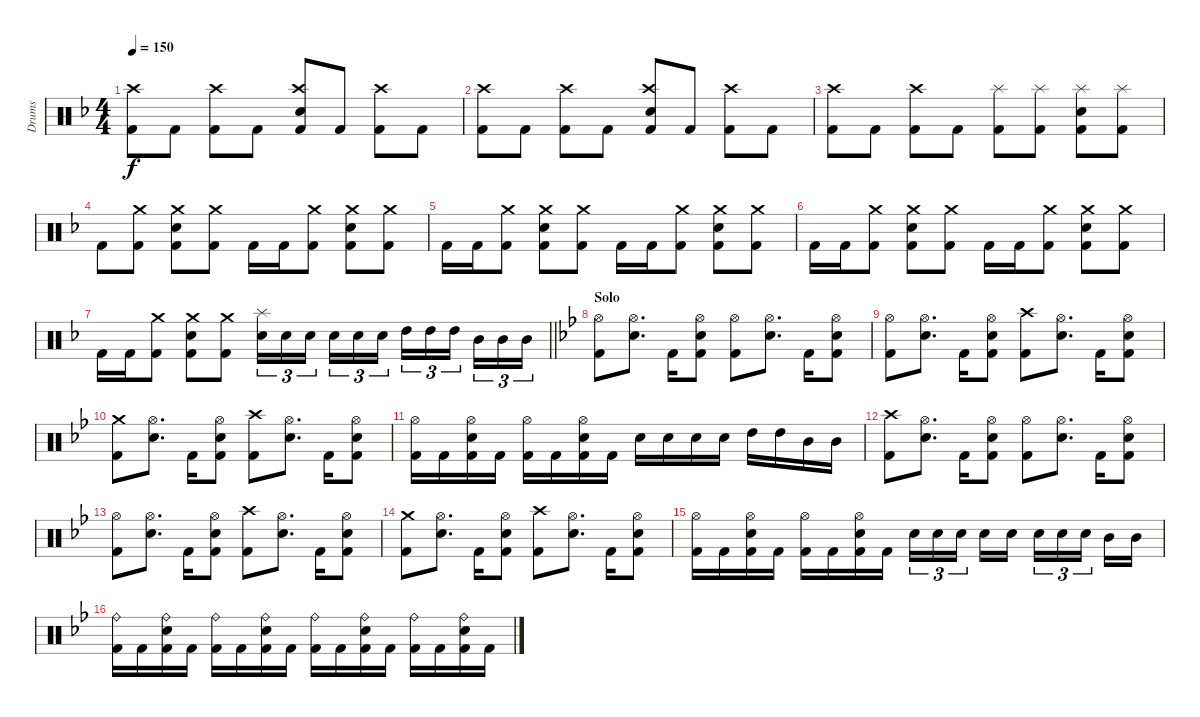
\track ("Drums" "Drums") {instrument percussion}
\staff {score}
\articulation defaults
\ts (4 4)
\tempo 150
\clef neutral
\ks dminor
("Kick (hit) 2" "Crash high (hit)").8{dy f} "Kick (hit) 2".8 ("Kick (hit) 2" "Crash high (hit)").8 "Kick (hit) 2".8 ("Kick (hit) 2" "Snare (hit) 2" "Crash high (hit)").8 "Kick (hit) 2".8 ("Kick (hit) 2" "Crash high (hit)").8 "Kick (hit) 2".8 |
("Kick (hit) 2" "Crash high (hit)").8 "Kick (hit) 2".8 ("Kick (hit) 2" "Crash high (hit)").8 "Kick (hit) 2".8 ("Kick (hit) 2" "Snare (hit) 2" "Crash high (hit)").8 "Kick (hit) 2".8 ("Kick (hit) 2" "Crash high (hit)").8 "Kick (hit) 2".8 |
("Kick (hit) 2" "Crash high (hit)").8 "Kick (hit) 2".8 ("Kick (hit) 2" "Crash high (hit)").8 "Kick (hit) 2".8 ("Kick (hit) 2" "Splash (hit)").8 ("Kick (hit) 2" "Splash (hit)").8 ("Kick (hit) 2" "Snare (hit) 2" "Splash (hit)").8 ("Kick (hit) 2" "Splash (hit)").8 |
"Kick (hit) 2".8 ("Kick (hit) 2" "Crash medium (hit)").8 ("Kick (hit) 2" "Snare (hit) 2" "Crash medium (hit)").8 ("Kick (hit) 2" "Crash medium (hit)").8 "Kick (hit) 2".16 "Kick (hit) 2".16 ("Kick (hit) 2" "Crash medium (hit)").8 ("Kick (hit) 2" "Snare (hit) 2" "Crash medium (hit)").8 ("Kick (hit) 2" "Crash medium (hit)").8 |
"Kick (hit) 2".16 "Kick (hit) 2".16 ("Kick (hit) 2" "Crash medium (hit)").8 ("Kick (hit) 2" "Snare (hit) 2" "Crash medium (hit)").8 ("Kick (hit) 2" "Crash medium (hit)").8 "Kick (hit) 2".16 "Kick (hit) 2".16 ("Kick (hit) 2" "Crash medium (hit)").8 ("Kick (hit) 2" "Snare (hit) 2" "Crash medium (hit)").8 ("Kick (hit) 2" "Crash medium (hit)").8 |
"Kick (hit) 2".16 "Kick (hit) 2".16 ("Kick (hit) 2" "Crash medium (hit)").8 ("Kick (hit) 2" "Snare (hit) 2" "Crash medium (hit)").8 ("Kick (hit) 2" "Crash medium (hit)").8 "Kick (hit) 2".16 "Kick (hit) 2".16 ("Kick (hit) 2" "Crash medium (hit)").8 ("Kick (hit) 2" "Snare (hit) 2" "Crash medium (hit)").8 ("Kick (hit) 2" "Crash medium (hit)").8 |
\barLineRight lightlight "Kick (hit) 2".16 "Kick (hit) 2".16
("Kick (hit) 2" "Crash medium (hit)").8 ("Kick (hit) 2" "Snare (hit) 2" "Crash medium (hit)").8 ("Kick (hit) 2" "Crash medium (hit)").8 ("Snare (hit) 2" "Splash (hit)").16{tu (3 2)} "Snare (hit) 2".16{tu (3 2)} "Snare (hit) 2".16{tu (3 2) beam splitsecondary} "Snare (hit) 2".16{tu (3 2)} "Snare (hit) 2".16{tu (3 2)} "Snare (hit) 2".16{tu (3 2)} "High Tom (hit)".16{tu (3 2)} "High Tom (hit)".16{tu (3 2)} "High Tom (hit)".16{tu (3 2) beam splitsecondary} "Mid Tom (hit)".16{tu (3 2)} "Mid Tom (hit)".16{tu (3 2)} "Mid Tom (hit)".16{tu (3 2)} |
\section ("" "Solo")
\ks gminor
("Kick (hit) 2" "Hi-Hat (open)").8 ("Snare (hit) 2" "Hi-Hat (open)").8{d} "Kick (hit) 2".16 ("Kick (hit) 2" "Snare (hit) 2" "Hi-Hat (open)").8 ("Kick (hit) 2" "Hi-Hat (open)").8 ("Snare (hit) 2" "Hi-Hat (open)").8{d} "Kick (hit) 2".16 ("Kick (hit) 2" "Snare (hit) 2" "Hi-Hat (open)").8 |
("Kick (hit) 2" "Hi-Hat (open)").8 ("Snare (hit) 2" "Hi-Hat (open)").8{d} "Kick (hit) 2".16 ("Kick (hit) 2" "Snare (hit) 2" "Hi-Hat (open)").8 ("Kick (hit) 2" "Crash high (hit)").8 ("Snare (hit) 2" "Hi-Hat (open)").8{d} "Kick (hit) 2".16 ("Kick (hit) 2" "Snare (hit) 2" "Hi-Hat (open)").8 |
("Kick (hit) 2" "Crash medium (hit)").8 ("Snare (hit) 2" "Hi-Hat (open)").8{d} "Kick (hit) 2".16 ("Kick (hit) 2" "Snare (hit) 2" "Hi-Hat (open)").8 ("Kick (hit) 2" "Crash high (hit)").8 ("Snare (hit) 2" "Hi-Hat (open)").8{d} "Kick (hit) 2".16 ("Kick (hit) 2" "Snare (hit) 2" "Hi-Hat (open)").8 |
("Kick (hit) 2" "Hi-Hat (open)").16 "Kick (hit) 2".16 ("Kick (hit) 2" "Snare (hit) 2" "Hi-Hat (open)").16 "Kick (hit) 2".16 ("Kick (hit) 2" "Hi-Hat (open)").16 "Kick (hit) 2".16 ("Kick (hit) 2" "Snare (hit) 2" "Hi-Hat (open)").16 "Kick (hit) 2".16 "Snare (hit) 2".16 "Snare (hit) 2".16 "Snare (hit) 2".16 "Snare (hit) 2".16 "High Tom (hit)".16 "High Tom (hit)".16 "Mid Tom (hit)".16 "Mid Tom (hit)".16 |
("Kick (hit) 2" "Crash high (hit)").8 ("Snare (hit) 2" "Hi-Hat (open)").8{d} "Kick (hit) 2".16 ("Kick (hit) 2" "Snare (hit) 2" "Hi-Hat (open)").8 ("Kick (hit) 2" "Hi-Hat (open)").8 ("Snare (hit) 2" "Hi-Hat (open)").8{d} "Kick (hit) 2".16 ("Kick (hit) 2" "Snare (hit) 2" "Hi-Hat (open)").8 |
("Kick (hit) 2" "Hi-Hat (open)").8 ("Snare (hit) 2" "Hi-Hat (open)").8{d} "Kick (hit) 2".16 ("Kick (hit) 2" "Snare (hit) 2" "Hi-Hat (open)").8 ("Kick (hit) 2" "Crash high (hit)").8 ("Snare (hit) 2" "Hi-Hat (open)").8{d} "Kick (hit) 2".16 ("Kick (hit) 2" "Snare (hit) 2" "Hi-Hat (open)").8 |
("Kick (hit) 2" "Crash medium (hit)").8 ("Snare (hit) 2" "Hi-Hat (open)").8{d} "Kick (hit) 2".16 ("Kick (hit) 2" "Snare (hit) 2" "Hi-Hat (open)").8 ("Kick (hit) 2" "Crash high (hit)").8 ("Snare (hit) 2" "Hi-Hat (open)").8{d} "Kick (hit) 2".16 ("Kick (hit) 2" "Snare (hit) 2" "Hi-Hat (open)").8 |
("Kick (hit) 2" "Hi-Hat (open)").16 "Kick (hit) 2".16 ("Kick (hit) 2" "Snare (hit) 2" "Hi-Hat (open)").16 "Kick (hit) 2".16 ("Kick (hit) 2" "Hi-Hat (open)").16 "Kick (hit) 2".16 ("Kick (hit) 2" "Snare (hit) 2" "Hi-Hat (open)").16 "Kick (hit) 2".16 "Snare (hit) 2".16{tu (3 2)} "Snare (hit) 2".16{tu (3 2)} "Snare (hit) 2".16{tu (3 2) beam splitsecondary} "Snare (hit) 2".16 "Snare (hit) 2".16 "Snare (hit) 2".16{tu (3 2)} "Snare (hit) 2".16{tu (3 2)} "Snare (hit) 2".16{tu (3 2) beam splitsecondary} "Mid Tom (hit)".16 "Mid Tom (hit)".16 |
("Kick (hit) 2" "Ride (bell)").16 "Kick (hit) 2".16 ("Kick (hit) 2" "Snare (hit) 2" "Ride (bell)").16 "Kick (hit) 2".16 ("Kick (hit) 2" "Ride (bell)").16 "Kick (hit) 2".16 ("Kick (hit) 2" "Snare (hit) 2" "Ride (bell)").16 "Kick (hit) 2".16 ("Kick (hit) 2" "Ride (bell)").16 "Kick (hit) 2".16 ("Kick (hit) 2" "Snare (hit) 2" "Ride (bell)").16 "Kick (hit) 2".16 ("Kick (hit) 2" "Ride (bell)").16 "Kick (hit) 2".16 ("Kick (hit) 2" "Snare (hit) 2" "Ride (bell)").16 "Kick (hit) 2".16
